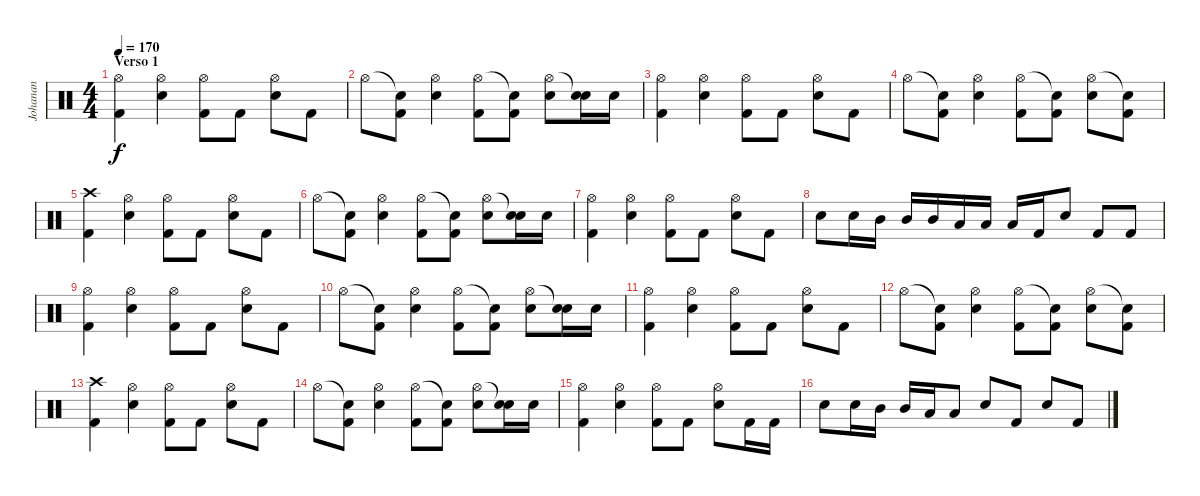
\track ("Johanan" "Johanan") {instrument percussion}
\staff {score}
\articulation defaults
\ts (4 4)
\section ("" "Verso 1")
\tempo 170
\clef neutral
\ks c
("Hi-Hat (open)" "Kick (hit) 2").4{dy f} ("Hi-Hat (open)" "Electric Snare (hit)").4 ("Hi-Hat (open)" "Kick (hit) 2").8 "Kick (hit) 2".8 ("Hi-Hat (open)" "Electric Snare (hit)").8 "Kick (hit) 2".8 |
"Hi-Hat (open)".8 ("Snare (hit)"{t} "Kick (hit) 2").8 ("Hi-Hat (open)" "Electric Snare (hit)").4 ("Hi-Hat (open)" "Kick (hit) 2").8 ("Snare (hit)"{t} "Kick (hit) 2").8 ("Hi-Hat (open)" "Electric Snare (hit)").8 ("Snare (hit)"{t} "Electric Snare (hit)").16 "Electric Snare (hit)".16 |
("Hi-Hat (open)" "Kick (hit) 2").4 ("Hi-Hat (open)" "Electric Snare (hit)").4 ("Hi-Hat (open)" "Kick (hit) 2").8 "Kick (hit) 2".8 ("Hi-Hat (open)" "Electric Snare (hit)").8 "Kick (hit) 2".8 |
"Hi-Hat (open)".8 ("Snare (hit)"{t} "Kick (hit) 2").8 ("Hi-Hat (open)" "Electric Snare (hit)").4 ("Hi-Hat (open)" "Kick (hit) 2").8 ("Snare (hit)"{t} "Kick (hit) 2").8 ("Hi-Hat (open)" "Electric Snare (hit)").8 ("Snare (hit)"{t} "Kick (hit) 2").8 |
("Crash high (hit)" "Kick (hit) 2").4 ("Hi-Hat (open)" "Electric Snare (hit)").4 ("Hi-Hat (open)" "Kick (hit) 2").8 "Kick (hit) 2".8 ("Hi-Hat (open)" "Electric Snare (hit)").8 "Kick (hit) 2".8 |
"Hi-Hat (open)".8 ("Snare (hit)"{t} "Kick (hit) 2").8 ("Hi-Hat (open)" "Electric Snare (hit)").4 ("Hi-Hat (open)" "Kick (hit) 2").8 ("Snare (hit)"{t} "Kick (hit) 2").8 ("Hi-Hat (open)" "Electric Snare (hit)").8 ("Snare (hit)"{t} "Electric Snare (hit)").16 "Electric Snare (hit)".16 |
("Hi-Hat (open)" "Kick (hit) 2").4 ("Hi-Hat (open)" "Electric Snare (hit)").4 ("Hi-Hat (open)" "Kick (hit) 2").8 "Kick (hit) 2".8 ("Hi-Hat (open)" "Electric Snare (hit)").8 "Kick (hit) 2".8 |
"Electric Snare (hit)".8 "Electric Snare (hit)".16 "Mid Tom (hit)".16 "Mid Tom (hit)".16 "Mid Tom (hit)".16 "Low Tom (hit)".16 "Low Tom (hit)".16 "Low Tom (hit)".16 "Kick (hit) 2".16 "Electric Snare (hit)".8 "Kick (hit) 2".8 "Kick (hit) 2".8 |
("Hi-Hat (open)" "Kick (hit) 2").4 ("Hi-Hat (open)" "Electric Snare (hit)").4 ("Hi-Hat (open)" "Kick (hit) 2").8 "Kick (hit) 2".8 ("Hi-Hat (open)" "Electric Snare (hit)").8 "Kick (hit) 2".8 |
"Hi-Hat (open)".8 ("Snare (hit)"{t} "Kick (hit) 2").8 ("Hi-Hat (open)" "Electric Snare (hit)").4 ("Hi-Hat (open)" "Kick (hit) 2").8 ("Snare (hit)"{t} "Kick (hit) 2").8 ("Hi-Hat (open)" "Electric Snare (hit)").8 ("Snare (hit)"{t} "Electric Snare (hit)").16 "Electric Snare (hit)".16 |
("Hi-Hat (open)" "Kick (hit) 2").4 ("Hi-Hat (open)" "Electric Snare (hit)").4 ("Hi-Hat (open)" "Kick (hit) 2").8 "Kick (hit) 2".8 ("Hi-Hat (open)" "Electric Snare (hit)").8 "Kick (hit) 2".8 |
"Hi-Hat (open)".8 ("Snare (hit)"{t} "Kick (hit) 2").8 ("Hi-Hat (open)" "Electric Snare (hit)").4 ("Hi-Hat (open)" "Kick (hit) 2").8 ("Snare (hit)"{t} "Kick (hit) 2").8 ("Hi-Hat (open)" "Electric Snare (hit)").8 ("Snare (hit)"{t} "Kick (hit) 2").8 |
("Crash high (hit)" "Kick (hit) 2").4 ("Hi-Hat (open)" "Electric Snare (hit)").4 ("Hi-Hat (open)" "Kick (hit) 2").8 "Kick (hit) 2".8 ("Hi-Hat (open)" "Electric Snare (hit)").8 "Kick (hit) 2".8 |
"Hi-Hat (open)".8 ("Snare (hit)"{t} "Kick (hit) 2").8 ("Hi-Hat (open)" "Electric Snare (hit)").4 ("Hi-Hat (open)" "Kick (hit) 2").8 ("Snare (hit)"{t} "Kick (hit) 2").8 ("Hi-Hat (open)" "Electric Snare (hit)").8 ("Snare (hit)"{t} "Electric Snare (hit)").16 "Electric Snare (hit)".16 |
("Hi-Hat (open)" "Kick (hit) 2").4 ("Hi-Hat (open)" "Electric Snare (hit)").4 ("Hi-Hat (open)" "Kick (hit) 2").8 "Kick (hit) 2".8 ("Hi-Hat (open)" "Electric Snare (hit)").8 "Kick (hit) 2".16 "Kick (hit) 2".16 |
"Electric Snare (hit)".8 "Electric Snare (hit)".16 "Mid Tom (hit)".16 "Mid Tom (hit)".16 "Low Tom (hit)".16 "Low Tom (hit)".8 "Electric Snare (hit)".8 "Kick (hit) 2".8 "Electric Snare (hit)".8 "Kick (hit) 2".8
